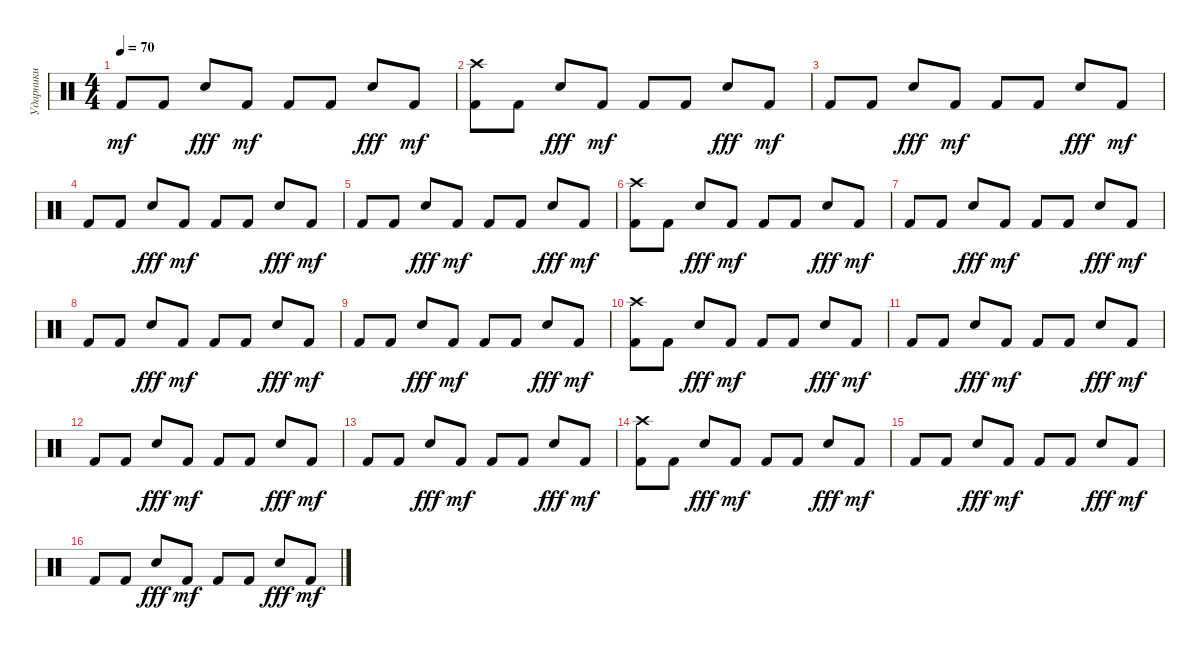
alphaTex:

\track ("Ударники" "Ударники") {instrument percussion}
\staff {score}
\articulation defaults
\ts (4 4)
\tempo 70
\clef neutral
\ks c "Kick (hit) 2".8{dy mf} "Kick (hit) 2".8 "Snare (hit) 2".8{dy fff} "Kick (hit) 2".8{dy mf} "Kick (hit) 2".8 "Kick (hit) 2".8 "Snare (hit) 2".8{dy fff} "Kick (hit) 2".8{dy mf}
|
("Crash high (hit)" "Kick (hit) 2").8 "Kick (hit) 2".8 "Snare (hit) 2".8{dy fff} "Kick (hit) 2".8{dy mf} "Kick (hit) 2".8 "Kick (hit) 2".8 "Snare (hit) 2".8{dy fff} "Kick (hit) 2".8{dy mf} |
"Kick (hit) 2".8 "Kick (hit) 2".8 "Snare (hit) 2".8{dy fff} "Kick (hit) 2".8{dy mf} "Kick (hit) 2".8 "Kick (hit) 2".8 "Snare (hit) 2".8{dy fff} "Kick (hit) 2".8{dy mf} |
"Kick (hit) 2".8 "Kick (hit) 2".8 "Snare (hit) 2".8{dy fff} "Kick (hit) 2".8{dy mf} "Kick (hit) 2".8 "Kick (hit) 2".8 "Snare (hit) 2".8{dy fff} "Kick (hit) 2".8{dy mf} |
"Kick (hit) 2".8 "Kick (hit) 2".8 "Snare (hit) 2".8{dy fff} "Kick (hit) 2".8{dy mf} "Kick (hit) 2".8 "Kick (hit) 2".8 "Snare (hit) 2".8{dy fff} "Kick (hit) 2".8{dy mf} |
("Crash high (hit)" "Kick (hit) 2").8 "Kick (hit) 2".8 "Snare (hit) 2".8{dy fff} "Kick (hit) 2".8{dy mf} "Kick (hit) 2".8 "Kick (hit) 2".8 "Snare (hit) 2".8{dy fff} "Kick (hit) 2".8{dy mf} |
"Kick (hit) 2".8 "Kick (hit) 2".8 "Snare (hit) 2".8{dy fff} "Kick (hit) 2".8{dy mf} "Kick (hit) 2".8 "Kick (hit) 2".8 "Snare (hit) 2".8{dy fff} "Kick (hit) 2".8{dy mf} |
"Kick (hit) 2".8 "Kick (hit) 2".8 "Snare (hit) 2".8{dy fff} "Kick (hit) 2".8{dy mf} "Kick (hit) 2".8 "Kick (hit) 2".8 "Snare (hit) 2".8{dy fff} "Kick (hit) 2".8{dy mf} |
"Kick (hit) 2".8 "Kick (hit) 2".8 "Snare (hit) 2".8{dy fff} "Kick (hit) 2".8{dy mf} "Kick (hit) 2".8 "Kick (hit) 2".8 "Snare (hit) 2".8{dy fff} "Kick (hit) 2".8{dy mf} |
("Crash high (hit)" "Kick (hit) 2").8 "Kick (hit) 2".8 "Snare (hit) 2".8{dy fff} "Kick (hit) 2".8{dy mf} "Kick (hit) 2".8 "Kick (hit) 2".8 "Snare (hit) 2".8{dy fff} "Kick (hit) 2".8{dy mf} |
"Kick (hit) 2".8 "Kick (hit) 2".8 "Snare (hit) 2".8{dy fff} "Kick (hit) 2".8{dy mf} "Kick (hit) 2".8 "Kick (hit) 2".8 "Snare (hit) 2".8{dy fff} "Kick (hit) 2".8{dy mf} |
"Kick (hit) 2".8 "Kick (hit) 2".8 "Snare (hit) 2".8{dy fff} "Kick (hit) 2".8{dy mf} "Kick (hit) 2".8 "Kick (hit) 2".8 "Snare (hit) 2".8{dy fff} "Kick (hit) 2".8{dy mf} |
"Kick (hit) 2".8 "Kick (hit) 2".8 "Snare (hit) 2".8{dy fff} "Kick (hit) 2".8{dy mf} "Kick (hit) 2".8 "Kick (hit) 2".8 "Snare (hit) 2".8{dy fff} "Kick (hit) 2".8{dy mf} |
("Crash high (hit)" "Kick (hit) 2").8 "Kick (hit) 2".8 "Snare (hit) 2".8{dy fff} "Kick (hit) 2".8{dy mf} "Kick (hit) 2".8 "Kick (hit) 2".8 "Snare (hit) 2".8{dy fff} "Kick (hit) 2".8{dy mf} |
"Kick (hit) 2".8 "Kick (hit) 2".8 "Snare (hit) 2".8{dy fff} "Kick (hit) 2".8{dy mf} "Kick (hit) 2".8 "Kick (hit) 2".8 "Snare (hit) 2".8{dy fff} "Kick (hit) 2".8{dy mf} |
"Kick (hit) 2".8 "Kick (hit) 2".8 "Snare (hit) 2".8{dy fff} "Kick (hit) 2".8{dy mf} "Kick (hit) 2".8 "Kick (hit) 2".8 "Snare (hit) 2".8{dy fff} "Kick (hit) 2".8{dy mf}
